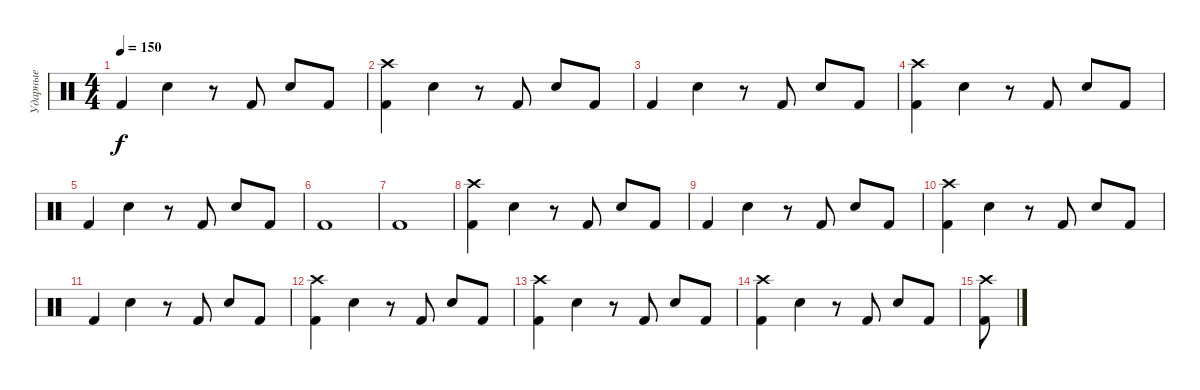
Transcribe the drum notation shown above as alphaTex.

\track ("Ударные" "Ударные") {instrument percussion}
\staff {score}
\articulation defaults
\ts (4 4)
\tempo 150
\clef neutral
\ks c "Kick (hit) 2".4{dy f} "Electric Snare (hit)".4
r.8 "Kick (hit) 2".8 "Electric Snare (hit)".8 "Kick (hit) 2".8 |
("Kick (hit) 2" "Crash high (hit)").4 "Electric Snare (hit)".4 r.8 "Kick (hit) 2".8 "Electric Snare (hit)".8 "Kick (hit) 2".8 |
"Kick (hit) 2".4 "Electric Snare (hit)".4 r.8 "Kick (hit) 2".8 "Electric Snare (hit)".8 "Kick (hit) 2".8 |
("Kick (hit) 2" "Crash high (hit)").4 "Electric Snare (hit)".4 r.8 "Kick (hit) 2".8 "Electric Snare (hit)".8 "Kick (hit) 2".8 |
"Kick (hit) 2".4 "Electric Snare (hit)".4 r.8 "Kick (hit) 2".8 "Electric Snare (hit)".8 "Kick (hit) 2".8 |
"Kick (hit) 2".1 |
"Kick (hit) 2".1 |
("Kick (hit) 2" "Crash high (hit)").4 "Electric Snare (hit)".4 r.8 "Kick (hit) 2".8 "Electric Snare (hit)".8 "Kick (hit) 2".8 |
"Kick (hit) 2".4 "Electric Snare (hit)".4 r.8 "Kick (hit) 2".8 "Electric Snare (hit)".8 "Kick (hit) 2".8 |
("Kick (hit) 2" "Crash high (hit)").4 "Electric Snare (hit)".4 r.8 "Kick (hit) 2".8 "Electric Snare (hit)".8 "Kick (hit) 2".8 |
"Kick (hit) 2".4 "Electric Snare (hit)".4 r.8 "Kick (hit) 2".8 "Electric Snare (hit)".8 "Kick (hit) 2".8 |
("Kick (hit) 2" "Crash high (hit)").4 "Electric Snare (hit)".4 r.8 "Kick (hit) 2".8 "Electric Snare (hit)".8 "Kick (hit) 2".8 |
("Kick (hit) 2" "Crash high (hit)").4 "Electric Snare (hit)".4 r.8 "Kick (hit) 2".8 "Electric Snare (hit)".8 "Kick (hit) 2".8 |
("Kick (hit) 2" "Crash high (hit)").4 "Electric Snare (hit)".4 r.8 "Kick (hit) 2".8 "Electric Snare (hit)".8 "Kick (hit) 2".8 |
("Crash high (hit)" "Kick (hit) 2").8
